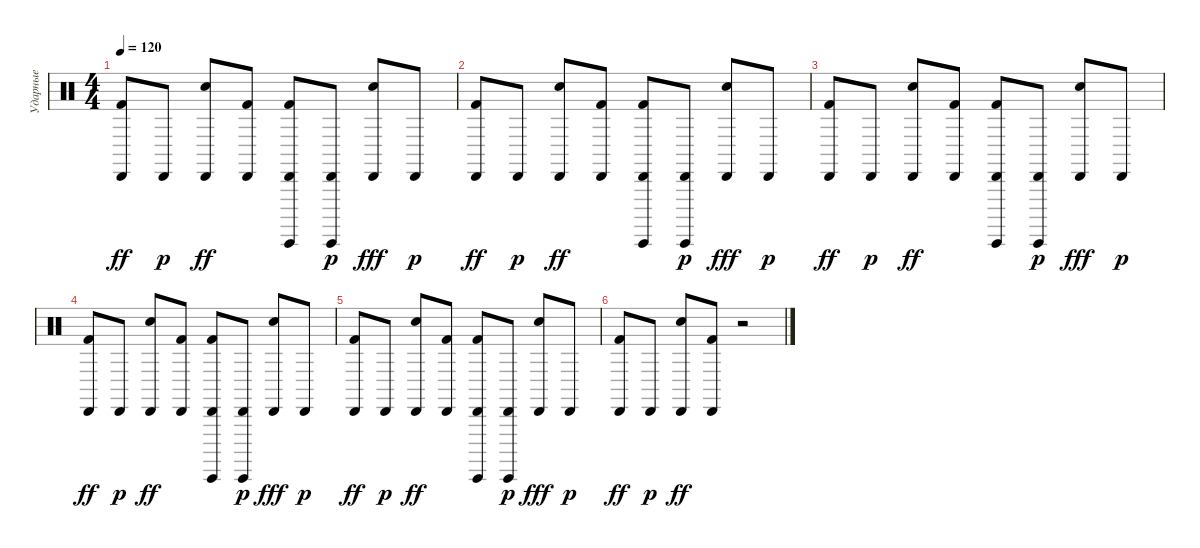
\track ("Ударные" "Ударные") {instrument percussion}
\staff {score}
\articulation defaults
\ts (4 4)
\tempo 120
\clef neutral
\ks c
("Cabasa (hit)" "Kick (hit) 2").8{dy ff} "Cabasa (hit)".8{dy p} ("Cabasa (hit)" "Snare (hit) 2").8{dy ff} ("Cabasa (hit)" "Kick (hit) 2").8 ("Cabasa (hit)" "Guiro (hit)" "Kick (hit) 2").8 ("Cabasa (hit)" "Guiro (hit)").8{dy p} ("Cabasa (hit)" "Snare (hit) 2").8{dy fff} "Cabasa (hit)".8{dy p} |
("Cabasa (hit)" "Kick (hit) 2").8{dy ff} "Cabasa (hit)".8{dy p} ("Cabasa (hit)" "Snare (hit) 2").8{dy ff} ("Cabasa (hit)" "Kick (hit) 2").8 ("Cabasa (hit)" "Guiro (hit)" "Kick (hit) 2").8 ("Cabasa (hit)" "Guiro (hit)").8{dy p} ("Cabasa (hit)" "Snare (hit) 2").8{dy fff} "Cabasa (hit)".8{dy p} |
("Cabasa (hit)" "Kick (hit) 2").8{dy ff} "Cabasa (hit)".8{dy p} ("Cabasa (hit)" "Snare (hit) 2").8{dy ff} ("Cabasa (hit)" "Kick (hit) 2").8 ("Cabasa (hit)" "Guiro (hit)" "Kick (hit) 2").8 ("Cabasa (hit)" "Guiro (hit)").8{dy p} ("Cabasa (hit)" "Snare (hit) 2").8{dy fff} "Cabasa (hit)".8{dy p} |
("Cabasa (hit)" "Kick (hit) 2").8{dy ff} "Cabasa (hit)".8{dy p} ("Cabasa (hit)" "Snare (hit) 2").8{dy ff} ("Cabasa (hit)" "Kick (hit) 2").8 ("Cabasa (hit)" "Guiro (hit)" "Kick (hit) 2").8 ("Cabasa (hit)" "Guiro (hit)").8{dy p} ("Cabasa (hit)" "Snare (hit) 2").8{dy fff} "Cabasa (hit)".8{dy p} |
("Cabasa (hit)" "Kick (hit) 2").8{dy ff} "Cabasa (hit)".8{dy p} ("Cabasa (hit)" "Snare (hit) 2").8{dy ff} ("Cabasa (hit)" "Kick (hit) 2").8 ("Cabasa (hit)" "Guiro (hit)" "Kick (hit) 2").8 ("Cabasa (hit)" "Guiro (hit)").8{dy p} ("Cabasa (hit)" "Snare (hit) 2").8{dy fff} "Cabasa (hit)".8{dy p} |
("Cabasa (hit)" "Kick (hit) 2").8{dy ff} "Cabasa (hit)".8{dy p} ("Cabasa (hit)" "Snare (hit) 2").8{dy ff} ("Cabasa (hit)" "Kick (hit) 2").8 r.2
